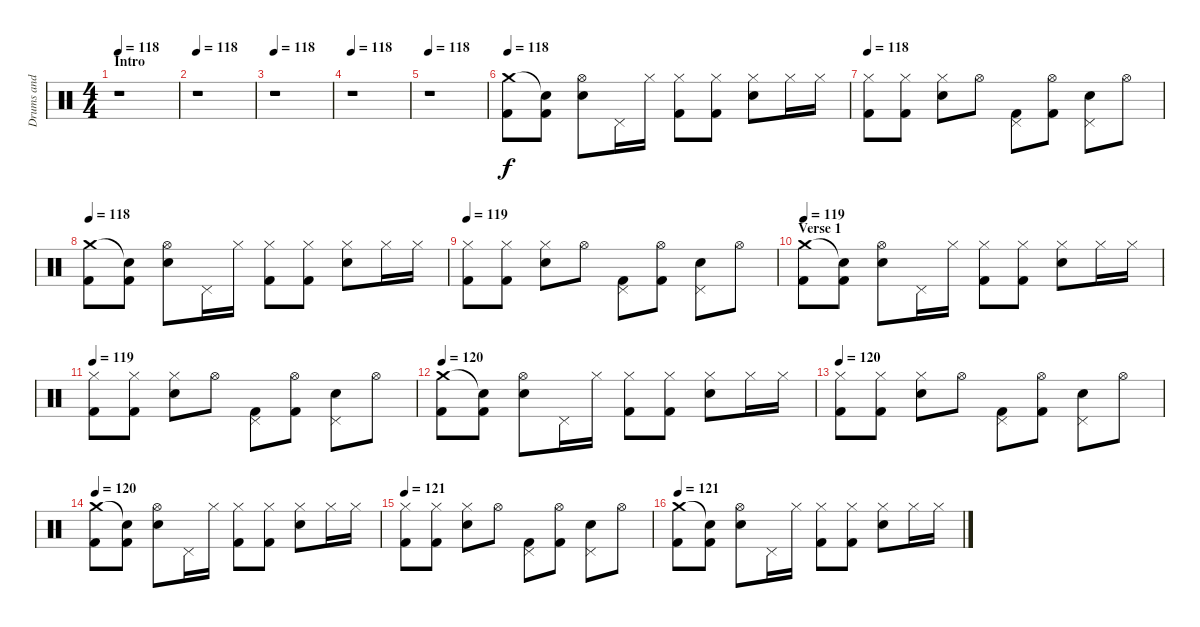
\track ("Drums and Percussion" "Drums and ") {instrument percussion}
\staff {score}
\articulation defaults
\ts (4 4)
\section ("" "Intro")
\tempo 118
\clef neutral
\ks c
r.1{dy f} |
\tempo 118
r.1 |
\tempo 118
r.1 |
\tempo 118
r.1 |
\tempo 118
r.1 |
\tempo 118
("Crash medium (hit)" "Kick (hit) 2").8 ("Snare (hit)"{t} "Kick (hit) 2").8 ("Hi-Hat (open)" "Electric Snare (hit)").8 "Pedal Hi-Hat (hit)".16 "Hi-Hat (closed)".16 ("Hi-Hat (closed)" "Kick (hit) 2").8 ("Hi-Hat (closed)" "Kick (hit) 2").8 ("Hi-Hat (closed)" "Electric Snare (hit)").8 "Hi-Hat (closed)".16 "Hi-Hat (closed)".16 |
\tempo 118
("Hi-Hat (closed)" "Kick (hit) 2").8 ("Hi-Hat (closed)" "Kick (hit) 2").8 ("Hi-Hat (closed)" "Electric Snare (hit)").8 "Hi-Hat (open)".8 ("Pedal Hi-Hat (hit)" "Kick (hit) 2").8 ("Hi-Hat (open)" "Kick (hit) 2").8 ("Pedal Hi-Hat (hit)" "Electric Snare (hit)").8 "Hi-Hat (open)".8 |
\tempo 118
("Crash medium (hit)" "Kick (hit) 2").8 ("Snare (hit)"{t} "Kick (hit) 2").8 ("Hi-Hat (open)" "Electric Snare (hit)").8 "Pedal Hi-Hat (hit)".16 "Hi-Hat (closed)".16 ("Hi-Hat (closed)" "Kick (hit) 2").8 ("Hi-Hat (closed)" "Kick (hit) 2").8 ("Hi-Hat (closed)" "Electric Snare (hit)").8 "Hi-Hat (closed)".16 "Hi-Hat (closed)".16 |
\tempo 119
("Hi-Hat (closed)" "Kick (hit) 2").8 ("Hi-Hat (closed)" "Kick (hit) 2").8 ("Hi-Hat (closed)" "Electric Snare (hit)").8 "Hi-Hat (open)".8 ("Pedal Hi-Hat (hit)" "Kick (hit) 2").8 ("Hi-Hat (open)" "Kick (hit) 2").8 ("Pedal Hi-Hat (hit)" "Electric Snare (hit)").8 "Hi-Hat (open)".8 |
\section ("" "Verse 1")
\tempo 119
("Crash medium (hit)" "Kick (hit) 2").8 ("Snare (hit)"{t} "Kick (hit) 2").8 ("Hi-Hat (open)" "Electric Snare (hit)").8 "Pedal Hi-Hat (hit)".16 "Hi-Hat (closed)".16 ("Hi-Hat (closed)" "Kick (hit) 2").8 ("Hi-Hat (closed)" "Kick (hit) 2").8 ("Hi-Hat (closed)" "Electric Snare (hit)").8 "Hi-Hat (closed)".16 "Hi-Hat (closed)".16 |
\tempo 119
("Hi-Hat (closed)" "Kick (hit) 2").8 ("Hi-Hat (closed)" "Kick (hit) 2").8 ("Hi-Hat (closed)" "Electric Snare (hit)").8 "Hi-Hat (open)".8 ("Pedal Hi-Hat (hit)" "Kick (hit) 2").8 ("Hi-Hat (open)" "Kick (hit) 2").8 ("Pedal Hi-Hat (hit)" "Electric Snare (hit)").8 "Hi-Hat (open)".8 |
\tempo 120
("Crash medium (hit)" "Kick (hit) 2").8 ("Snare (hit)"{t} "Kick (hit) 2").8 ("Hi-Hat (open)" "Electric Snare (hit)").8 "Pedal Hi-Hat (hit)".16 "Hi-Hat (closed)".16 ("Hi-Hat (closed)" "Kick (hit) 2").8 ("Hi-Hat (closed)" "Kick (hit) 2").8 ("Hi-Hat (closed)" "Electric Snare (hit)").8 "Hi-Hat (closed)".16 "Hi-Hat (closed)".16 |
\tempo 120
("Hi-Hat (closed)" "Kick (hit) 2").8 ("Hi-Hat (closed)" "Kick (hit) 2").8 ("Hi-Hat (closed)" "Electric Snare (hit)").8 "Hi-Hat (open)".8 ("Pedal Hi-Hat (hit)" "Kick (hit) 2").8 ("Hi-Hat (open)" "Kick (hit) 2").8 ("Pedal Hi-Hat (hit)" "Electric Snare (hit)").8 "Hi-Hat (open)".8 |
\tempo 120
("Crash medium (hit)" "Kick (hit) 2").8 ("Snare (hit)"{t} "Kick (hit) 2").8 ("Hi-Hat (open)" "Electric Snare (hit)").8 "Pedal Hi-Hat (hit)".16 "Hi-Hat (closed)".16 ("Hi-Hat (closed)" "Kick (hit) 2").8 ("Hi-Hat (closed)" "Kick (hit) 2").8 ("Hi-Hat (closed)" "Electric Snare (hit)").8 "Hi-Hat (closed)".16 "Hi-Hat (closed)".16 |
\tempo 121
("Hi-Hat (closed)" "Kick (hit) 2").8 ("Hi-Hat (closed)" "Kick (hit) 2").8 ("Hi-Hat (closed)" "Electric Snare (hit)").8 "Hi-Hat (open)".8 ("Pedal Hi-Hat (hit)" "Kick (hit) 2").8 ("Hi-Hat (open)" "Kick (hit) 2").8 ("Pedal Hi-Hat (hit)" "Electric Snare (hit)").8 "Hi-Hat (open)".8 |
\tempo 121
("Crash medium (hit)" "Kick (hit) 2").8 ("Snare (hit)"{t} "Kick (hit) 2").8 ("Hi-Hat (open)" "Electric Snare (hit)").8 "Pedal Hi-Hat (hit)".16 "Hi-Hat (closed)".16 ("Hi-Hat (closed)" "Kick (hit) 2").8 ("Hi-Hat (closed)" "Kick (hit) 2").8 ("Hi-Hat (closed)" "Electric Snare (hit)").8 "Hi-Hat (closed)".16 "Hi-Hat (closed)".16
